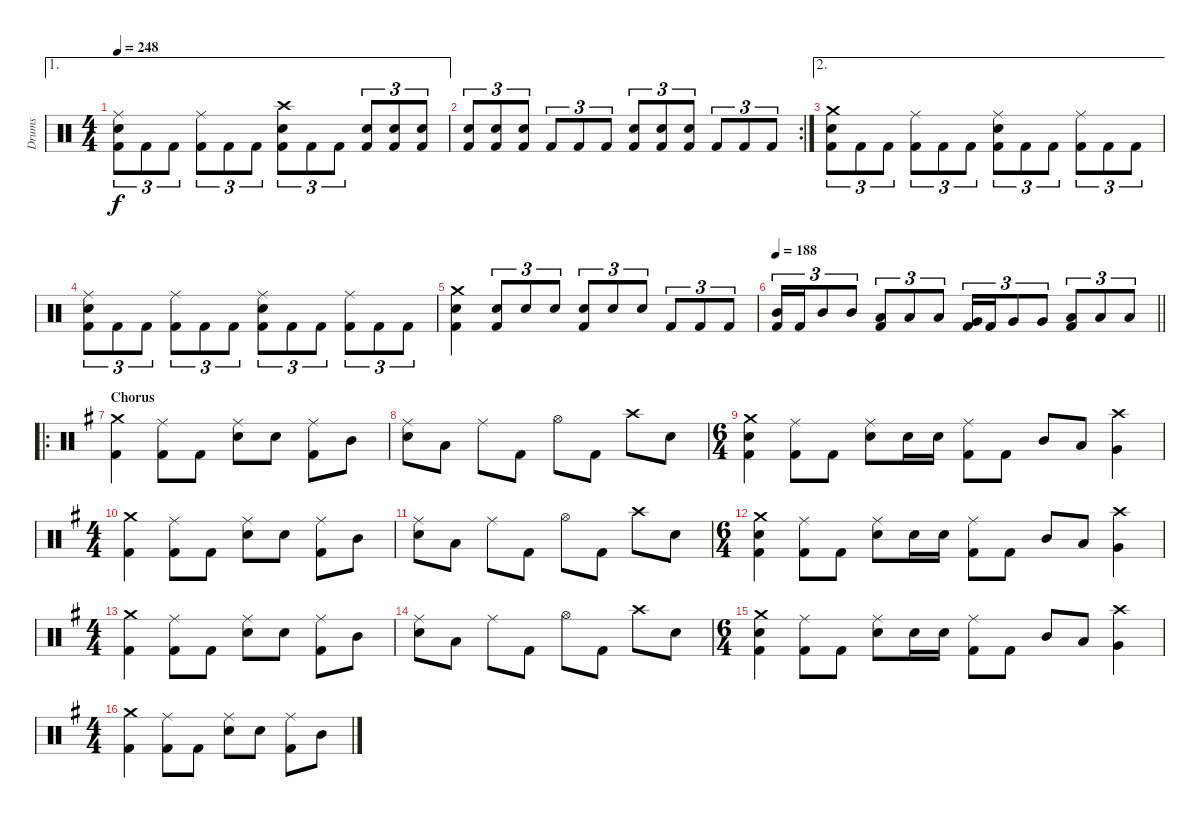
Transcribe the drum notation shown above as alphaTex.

\track ("Drums" "Drums") {instrument percussion}
\staff {score}
\articulation defaults
\ae 1
\ts (4 4)
\tempo 248
\clef neutral
\ks c
("Ride (middle)" "Snare (hit) 2" "Kick (hit) 2").8{tu (3 2) dy f} "Kick (hit) 2".8{tu (3 2)} "Kick (hit) 2".8{tu (3 2)} ("Ride (middle)" "Kick (hit) 2").8{tu (3 2)} "Kick (hit) 2".8{tu (3 2)} "Kick (hit) 2".8{tu (3 2)} ("Crash high (hit)" "Snare (hit) 2" "Kick (hit) 2").8{tu (3 2)} "Kick (hit) 2".8{tu (3 2)} "Kick (hit) 2".8{tu (3 2)} ("Snare (hit) 2" "Kick (hit) 2").8{tu (3 2)} ("Snare (hit) 2" "Kick (hit) 2").8{tu (3 2)} ("Snare (hit) 2" "Kick (hit) 2").8{tu (3 2)} |
\rc 2
("Snare (hit) 2" "Kick (hit) 2").8{tu (3 2)} ("Snare (hit) 2" "Kick (hit) 2").8{tu (3 2)} ("Snare (hit) 2" "Kick (hit) 2").8{tu (3 2)} "Kick (hit) 2".8{tu (3 2)} "Kick (hit) 2".8{tu (3 2)} "Kick (hit) 2".8{tu (3 2)} ("Snare (hit) 2" "Kick (hit) 2").8{tu (3 2)} ("Snare (hit) 2" "Kick (hit) 2").8{tu (3 2)} ("Snare (hit) 2" "Kick (hit) 2").8{tu (3 2)} "Kick (hit) 2".8{tu (3 2)} "Kick (hit) 2".8{tu (3 2)} "Kick (hit) 2".8{tu (3 2)} |
\ae 2
("Crash medium (hit)" "Snare (hit) 2" "Kick (hit) 2").8{tu (3 2)} "Kick (hit) 2".8{tu (3 2)} "Kick (hit) 2".8{tu (3 2)} ("Ride (middle)" "Kick (hit) 2").8{tu (3 2)} "Kick (hit) 2".8{tu (3 2)} "Kick (hit) 2".8{tu (3 2)} ("Ride (middle)" "Snare (hit) 2" "Kick (hit) 2").8{tu (3 2)} "Kick (hit) 2".8{tu (3 2)} "Kick (hit) 2".8{tu (3 2)} ("Ride (middle)" "Kick (hit) 2").8{tu (3 2)} "Kick (hit) 2".8{tu (3 2)} "Kick (hit) 2".8{tu (3 2)} |
("Ride (middle)" "Snare (hit) 2" "Kick (hit) 2").8{tu (3 2)} "Kick (hit) 2".8{tu (3 2)} "Kick (hit) 2".8{tu (3 2)} ("Ride (middle)" "Kick (hit) 2").8{tu (3 2)} "Kick (hit) 2".8{tu (3 2)} "Kick (hit) 2".8{tu (3 2)} ("Ride (middle)" "Snare (hit) 2" "Kick (hit) 2").8{tu (3 2)} "Kick (hit) 2".8{tu (3 2)} "Kick (hit) 2".8{tu (3 2)} ("Ride (middle)" "Kick (hit) 2").8{tu (3 2)} "Kick (hit) 2".8{tu (3 2)} "Kick (hit) 2".8{tu (3 2)} |
("Crash medium (hit)" "Snare (hit) 2" "Kick (hit) 2").4 ("Snare (hit) 2" "Kick (hit) 2").8{tu (3 2)} "Snare (hit) 2".8{tu (3 2)} "Snare (hit) 2".8{tu (3 2)} ("Snare (hit) 2" "Kick (hit) 2").8{tu (3 2)} "Snare (hit) 2".8{tu (3 2)} "Snare (hit) 2".8{tu (3 2)} "Kick (hit) 2".8{tu (3 2)} "Kick (hit) 2".8{tu (3 2)} "Kick (hit) 2".8{tu (3 2)} |
\tempo 188
\barLineRight lightlight
("Mid Tom (hit)" "Kick (hit) 2").16{tu (3 2)} "Kick (hit) 2".16{tu (3 2)} "Mid Tom (hit)".8{tu (3 2)} "Mid Tom (hit)".8{tu (3 2)} ("Low Tom (hit)" "Kick (hit) 2").8{tu (3 2)} "Low Tom (hit)".8{tu (3 2)} "Low Tom (hit)".8{tu (3 2)} ("Very Low Tom (hit)" "Kick (hit) 2").16{tu (3 2)} "Kick (hit) 2".16{tu (3 2)} "Very Low Tom (hit)".8{tu (3 2)} "Very Low Tom (hit)".8{tu (3 2)} ("Low Floor Tom (hit)" "Kick (hit) 2").8{tu (3 2)} "Low Floor Tom (hit)".8{tu (3 2)} "Low Floor Tom (hit)".8{tu (3 2)} |
\ro
\section ("" "Chorus")
\ks g
("Crash medium (hit)" "Kick (hit) 2").4 ("Ride (middle)" "Kick (hit) 2").8 "Kick (hit) 2".8 ("Ride (middle)" "Snare (hit) 2").8 "Snare (hit) 2".8 ("Ride (middle)" "Kick (hit) 2").8 "Mid Tom (hit)".8 |
("Ride (middle)" "Snare (hit) 2").8 "Low Tom (hit)".8 "Ride (middle)".8 "Kick (hit) 2".8 "Hi-Hat (open)".8 "Kick (hit) 2".8 "Crash high (hit)".8 "Snare (hit) 2".8 |
\ts (6 4)
("Crash medium (hit)" "Snare (hit) 2" "Kick (hit) 2").4 ("Ride (middle)" "Kick (hit) 2").8 "Kick (hit) 2".8 ("Ride (middle)" "Snare (hit) 2").8 "Snare (hit) 2".16 "Snare (hit) 2".16 ("Ride (middle)" "Kick (hit) 2").8 "Kick (hit) 2".8 "Mid Tom (hit)".8 "Low Tom (hit)".8 ("Crash high (hit)" "Very Low Tom (hit)").4 |
\ts (4 4)
("Crash medium (hit)" "Kick (hit) 2").4 ("Ride (middle)" "Kick (hit) 2").8 "Kick (hit) 2".8 ("Ride (middle)" "Snare (hit) 2").8 "Snare (hit) 2".8 ("Ride (middle)" "Kick (hit) 2").8 "Mid Tom (hit)".8 |
("Ride (middle)" "Snare (hit) 2").8 "Low Tom (hit)".8 "Ride (middle)".8 "Kick (hit) 2".8 "Hi-Hat (open)".8 "Kick (hit) 2".8 "Crash high (hit)".8 "Snare (hit) 2".8 |
\ts (6 4)
("Crash medium (hit)" "Snare (hit) 2" "Kick (hit) 2").4 ("Ride (middle)" "Kick (hit) 2").8 "Kick (hit) 2".8 ("Ride (middle)" "Snare (hit) 2").8 "Snare (hit) 2".16 "Snare (hit) 2".16 ("Ride (middle)" "Kick (hit) 2").8 "Kick (hit) 2".8 "Mid Tom (hit)".8 "Low Tom (hit)".8 ("Crash high (hit)" "Very Low Tom (hit)").4 |
\ts (4 4)
("Crash medium (hit)" "Kick (hit) 2").4 ("Ride (middle)" "Kick (hit) 2").8 "Kick (hit) 2".8 ("Ride (middle)" "Snare (hit) 2").8 "Snare (hit) 2".8 ("Ride (middle)" "Kick (hit) 2").8 "Mid Tom (hit)".8 |
("Ride (middle)" "Snare (hit) 2").8 "Low Tom (hit)".8 "Ride (middle)".8 "Kick (hit) 2".8 "Hi-Hat (open)".8 "Kick (hit) 2".8 "Crash high (hit)".8 "Snare (hit) 2".8 |
\ts (6 4)
("Crash medium (hit)" "Snare (hit) 2" "Kick (hit) 2").4 ("Ride (middle)" "Kick (hit) 2").8 "Kick (hit) 2".8 ("Ride (middle)" "Snare (hit) 2").8 "Snare (hit) 2".16 "Snare (hit) 2".16 ("Ride (middle)" "Kick (hit) 2").8 "Kick (hit) 2".8 "Mid Tom (hit)".8 "Low Tom (hit)".8 ("Crash high (hit)" "Very Low Tom (hit)").4 |
\ts (4 4)
("Crash medium (hit)" "Kick (hit) 2").4 ("Ride (middle)" "Kick (hit) 2").8 "Kick (hit) 2".8 ("Ride (middle)" "Snare (hit) 2").8 "Snare (hit) 2".8 ("Ride (middle)" "Kick (hit) 2").8 "Mid Tom (hit)".8
